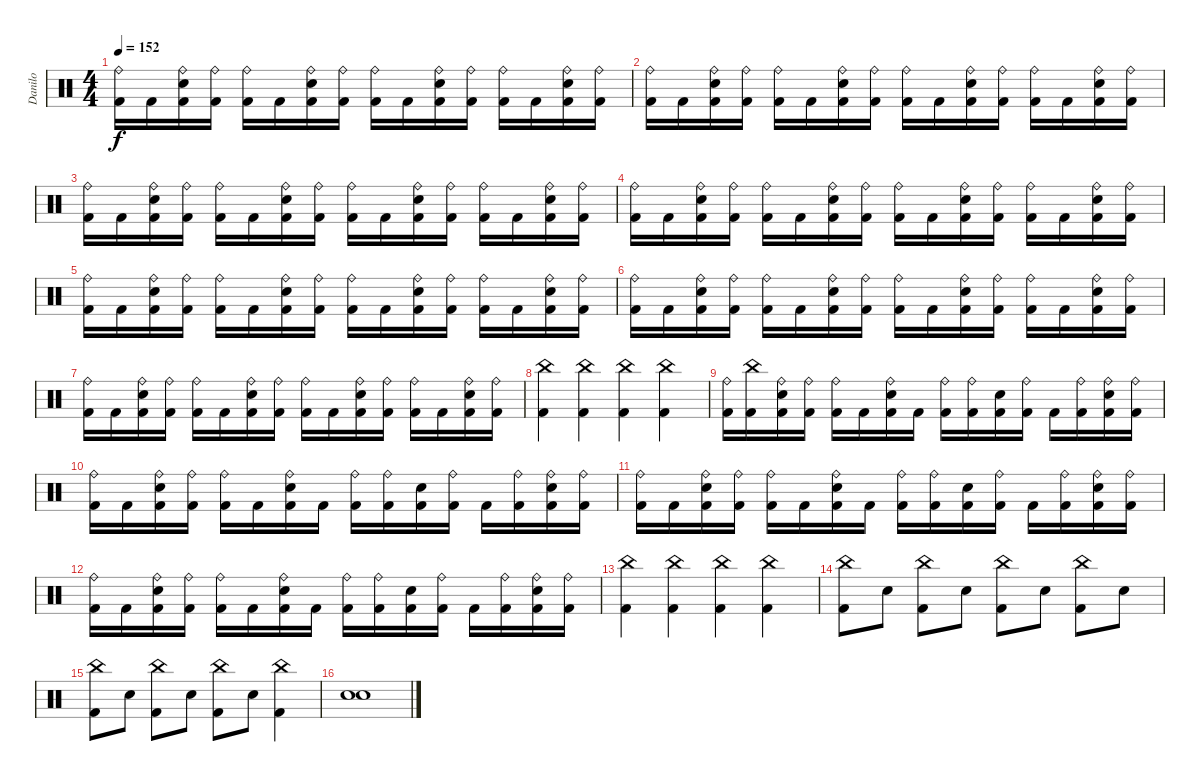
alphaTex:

\track ("Danilo" "Danilo") {instrument percussion}
\staff {score}
\articulation defaults
\ts (4 4)
\tempo 152
\clef neutral
\ks c
("Ride (bell)" "Kick (hit) 2").16{dy f} "Kick (hit) 2".16 ("Ride (bell)" "Snare (hit) 2" "Kick (hit) 2").16 ("Ride (bell)" "Kick (hit) 2").16 ("Ride (bell)" "Kick (hit) 2").16 "Kick (hit) 2".16 ("Ride (bell)" "Snare (hit) 2" "Kick (hit) 2").16 ("Ride (bell)" "Kick (hit) 2").16 ("Ride (bell)" "Kick (hit) 2").16 "Kick (hit) 2".16 ("Ride (bell)" "Snare (hit) 2" "Kick (hit) 2").16 ("Ride (bell)" "Kick (hit) 2").16 ("Ride (bell)" "Kick (hit) 2").16 "Kick (hit) 2".16 ("Ride (bell)" "Snare (hit) 2" "Kick (hit) 2").16 ("Ride (bell)" "Kick (hit) 2").16 |
("Ride (bell)" "Kick (hit) 2").16 "Kick (hit) 2".16 ("Ride (bell)" "Snare (hit) 2" "Kick (hit) 2").16 ("Ride (bell)" "Kick (hit) 2").16 ("Ride (bell)" "Kick (hit) 2").16 "Kick (hit) 2".16 ("Ride (bell)" "Snare (hit) 2" "Kick (hit) 2").16 ("Ride (bell)" "Kick (hit) 2").16 ("Ride (bell)" "Kick (hit) 2").16 "Kick (hit) 2".16 ("Ride (bell)" "Snare (hit) 2" "Kick (hit) 2").16 ("Ride (bell)" "Kick (hit) 2").16 ("Ride (bell)" "Kick (hit) 2").16 "Kick (hit) 2".16 ("Ride (bell)" "Snare (hit) 2" "Kick (hit) 2").16 ("Ride (bell)" "Kick (hit) 2").16 |
("Ride (bell)" "Kick (hit) 2").16 "Kick (hit) 2".16 ("Ride (bell)" "Snare (hit) 2" "Kick (hit) 2").16 ("Ride (bell)" "Kick (hit) 2").16 ("Ride (bell)" "Kick (hit) 2").16 "Kick (hit) 2".16 ("Ride (bell)" "Snare (hit) 2" "Kick (hit) 2").16 ("Ride (bell)" "Kick (hit) 2").16 ("Ride (bell)" "Kick (hit) 2").16 "Kick (hit) 2".16 ("Ride (bell)" "Snare (hit) 2" "Kick (hit) 2").16 ("Ride (bell)" "Kick (hit) 2").16 ("Ride (bell)" "Kick (hit) 2").16 "Kick (hit) 2".16 ("Ride (bell)" "Snare (hit) 2" "Kick (hit) 2").16 ("Ride (bell)" "Kick (hit) 2").16 |
("Ride (bell)" "Kick (hit) 2").16 "Kick (hit) 2".16 ("Ride (bell)" "Snare (hit) 2" "Kick (hit) 2").16 ("Ride (bell)" "Kick (hit) 2").16 ("Ride (bell)" "Kick (hit) 2").16 "Kick (hit) 2".16 ("Ride (bell)" "Snare (hit) 2" "Kick (hit) 2").16 ("Ride (bell)" "Kick (hit) 2").16 ("Ride (bell)" "Kick (hit) 2").16 "Kick (hit) 2".16 ("Ride (bell)" "Snare (hit) 2" "Kick (hit) 2").16 ("Ride (bell)" "Kick (hit) 2").16 ("Ride (bell)" "Kick (hit) 2").16 "Kick (hit) 2".16 ("Ride (bell)" "Snare (hit) 2" "Kick (hit) 2").16 ("Ride (bell)" "Kick (hit) 2").16 |
("Ride (bell)" "Kick (hit) 2").16 "Kick (hit) 2".16 ("Ride (bell)" "Snare (hit) 2" "Kick (hit) 2").16 ("Ride (bell)" "Kick (hit) 2").16 ("Ride (bell)" "Kick (hit) 2").16 "Kick (hit) 2".16 ("Ride (bell)" "Snare (hit) 2" "Kick (hit) 2").16 ("Ride (bell)" "Kick (hit) 2").16 ("Ride (bell)" "Kick (hit) 2").16 "Kick (hit) 2".16 ("Ride (bell)" "Snare (hit) 2" "Kick (hit) 2").16 ("Ride (bell)" "Kick (hit) 2").16 ("Ride (bell)" "Kick (hit) 2").16 "Kick (hit) 2".16 ("Ride (bell)" "Snare (hit) 2" "Kick (hit) 2").16 ("Ride (bell)" "Kick (hit) 2").16 |
("Ride (bell)" "Kick (hit) 2").16 "Kick (hit) 2".16 ("Ride (bell)" "Snare (hit) 2" "Kick (hit) 2").16 ("Ride (bell)" "Kick (hit) 2").16 ("Ride (bell)" "Kick (hit) 2").16 "Kick (hit) 2".16 ("Ride (bell)" "Snare (hit) 2" "Kick (hit) 2").16 ("Ride (bell)" "Kick (hit) 2").16 ("Ride (bell)" "Kick (hit) 2").16 "Kick (hit) 2".16 ("Ride (bell)" "Snare (hit) 2" "Kick (hit) 2").16 ("Ride (bell)" "Kick (hit) 2").16 ("Ride (bell)" "Kick (hit) 2").16 "Kick (hit) 2".16 ("Ride (bell)" "Snare (hit) 2" "Kick (hit) 2").16 ("Ride (bell)" "Kick (hit) 2").16 |
("Ride (bell)" "Kick (hit) 2").16 "Kick (hit) 2".16 ("Ride (bell)" "Snare (hit) 2" "Kick (hit) 2").16 ("Ride (bell)" "Kick (hit) 2").16 ("Ride (bell)" "Kick (hit) 2").16 "Kick (hit) 2".16 ("Ride (bell)" "Snare (hit) 2" "Kick (hit) 2").16 ("Ride (bell)" "Kick (hit) 2").16 ("Ride (bell)" "Kick (hit) 2").16 "Kick (hit) 2".16 ("Ride (bell)" "Snare (hit) 2" "Kick (hit) 2").16 ("Ride (bell)" "Kick (hit) 2").16 ("Ride (bell)" "Kick (hit) 2").16 "Kick (hit) 2".16 ("Ride (bell)" "Snare (hit) 2" "Kick (hit) 2").16 ("Ride (bell)" "Kick (hit) 2").16 |
("Kick (hit) 2" "China (hit)").4 ("Kick (hit) 2" "China (hit)").4 ("Kick (hit) 2" "China (hit)").4 ("Kick (hit) 2" "China (hit)").4 |
("Ride (bell)" "Kick (hit) 2").16 ("China (hit)" "Kick (hit) 2").16 ("Ride (bell)" "Snare (hit) 2" "Kick (hit) 2").16 ("Ride (bell)" "Kick (hit) 2").16 ("Ride (bell)" "Kick (hit) 2").16 "Kick (hit) 2".16 ("Ride (bell)" "Snare (hit) 2" "Kick (hit) 2").16 "Kick (hit) 2".16 ("Ride (bell)" "Kick (hit) 2").16 ("Ride (bell)" "Kick (hit) 2").16 ("Snare (hit) 2" "Kick (hit) 2").16 ("Ride (bell)" "Kick (hit) 2").16 "Kick (hit) 2".16 ("Ride (bell)" "Kick (hit) 2").16 ("Ride (bell)" "Snare (hit) 2" "Kick (hit) 2").16 ("Ride (bell)" "Kick (hit) 2").16 |
("Ride (bell)" "Kick (hit) 2").16 "Kick (hit) 2".16 ("Ride (bell)" "Snare (hit) 2" "Kick (hit) 2").16 ("Ride (bell)" "Kick (hit) 2").16 ("Ride (bell)" "Kick (hit) 2").16 "Kick (hit) 2".16 ("Ride (bell)" "Snare (hit) 2" "Kick (hit) 2").16 "Kick (hit) 2".16 ("Ride (bell)" "Kick (hit) 2").16 ("Ride (bell)" "Kick (hit) 2").16 ("Snare (hit) 2" "Kick (hit) 2").16 ("Ride (bell)" "Kick (hit) 2").16 "Kick (hit) 2".16 ("Ride (bell)" "Kick (hit) 2").16 ("Ride (bell)" "Snare (hit) 2" "Kick (hit) 2").16 ("Ride (bell)" "Kick (hit) 2").16 |
("Ride (bell)" "Kick (hit) 2").16 "Kick (hit) 2".16 ("Ride (bell)" "Snare (hit) 2" "Kick (hit) 2").16 ("Ride (bell)" "Kick (hit) 2").16 ("Ride (bell)" "Kick (hit) 2").16 "Kick (hit) 2".16 ("Ride (bell)" "Snare (hit) 2" "Kick (hit) 2").16 "Kick (hit) 2".16 ("Ride (bell)" "Kick (hit) 2").16 ("Ride (bell)" "Kick (hit) 2").16 ("Snare (hit) 2" "Kick (hit) 2").16 ("Ride (bell)" "Kick (hit) 2").16 "Kick (hit) 2".16 ("Ride (bell)" "Kick (hit) 2").16 ("Ride (bell)" "Snare (hit) 2" "Kick (hit) 2").16 ("Ride (bell)" "Kick (hit) 2").16 |
("Ride (bell)" "Kick (hit) 2").16 "Kick (hit) 2".16 ("Ride (bell)" "Snare (hit) 2" "Kick (hit) 2").16 ("Ride (bell)" "Kick (hit) 2").16 ("Ride (bell)" "Kick (hit) 2").16 "Kick (hit) 2".16 ("Ride (bell)" "Snare (hit) 2" "Kick (hit) 2").16 "Kick (hit) 2".16 ("Ride (bell)" "Kick (hit) 2").16 ("Ride (bell)" "Kick (hit) 2").16 ("Snare (hit) 2" "Kick (hit) 2").16 ("Ride (bell)" "Kick (hit) 2").16 "Kick (hit) 2".16 ("Ride (bell)" "Kick (hit) 2").16 ("Ride (bell)" "Snare (hit) 2" "Kick (hit) 2").16 ("Ride (bell)" "Kick (hit) 2").16 |
("Kick (hit) 2" "China (hit)").4 ("Kick (hit) 2" "China (hit)").4 ("Kick (hit) 2" "China (hit)").4 ("Kick (hit) 2" "China (hit)").4 |
("Kick (hit) 2" "China (hit)").8 "Snare (hit) 2".8 ("Kick (hit) 2" "China (hit)").8 "Snare (hit) 2".8 ("Kick (hit) 2" "China (hit)").8 "Snare (hit) 2".8 ("China (hit)" "Kick (hit) 2").8 "Snare (hit) 2".8 |
("Kick (hit) 2" "China (hit)").8 "Snare (hit) 2".8 ("Kick (hit) 2" "China (hit)").8 "Snare (hit) 2".8 ("Kick (hit) 2" "China (hit)").8 "Snare (hit) 2".8 ("China (hit)" "Kick (hit) 2").4 |
("Electric Snare (hit)" "Snare (hit) 2").1
